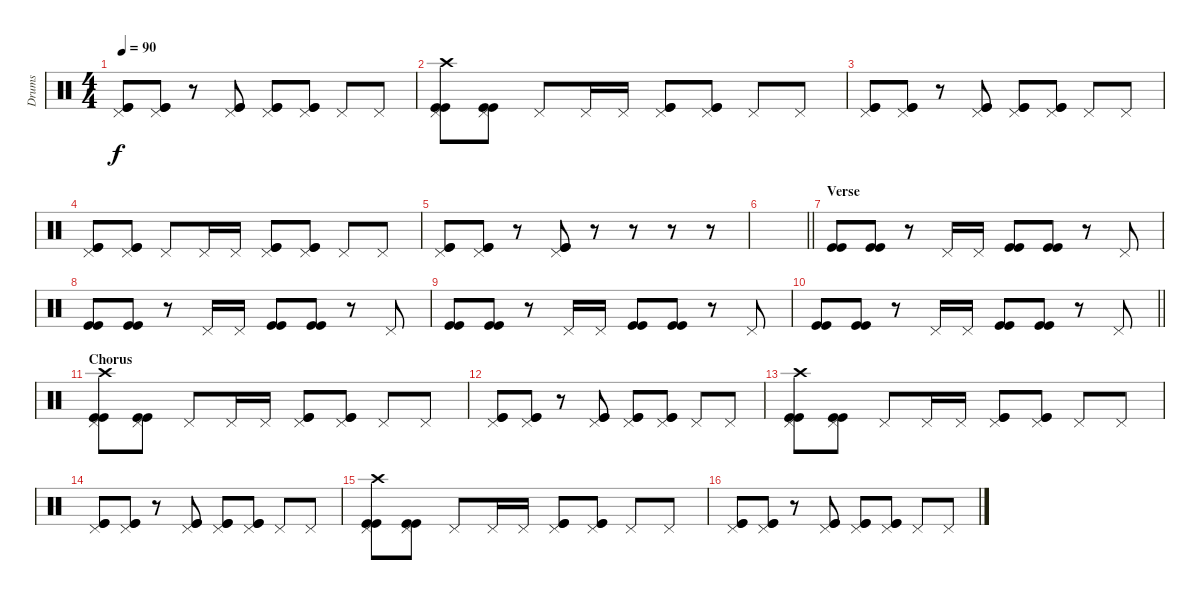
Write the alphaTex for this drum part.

\track ("Drums" "Drums") {instrument percussion}
\staff {score}
\articulation defaults
\ts (4 4)
\tempo 90
\clef neutral
\ks c
("Kick (hit)" "Kick (hit)" "Pedal Hi-Hat (hit)").8{dy f} ("Kick (hit)" "Kick (hit)" "Pedal Hi-Hat (hit)").8 r.8 ("Kick (hit)" "Kick (hit)" "Pedal Hi-Hat (hit)").8 ("Kick (hit)" "Kick (hit)" "Pedal Hi-Hat (hit)").8 ("Kick (hit)" "Kick (hit)" "Pedal Hi-Hat (hit)").8 "Pedal Hi-Hat (hit)".8 "Pedal Hi-Hat (hit)".8 |
("Kick (hit)" "Kick (hit)" "Pedal Hi-Hat (hit)" "Crash high (hit)").8 ("Kick (hit)" "Kick (hit)" "Pedal Hi-Hat (hit)").8 "Pedal Hi-Hat (hit)".8 "Pedal Hi-Hat (hit)".16 "Pedal Hi-Hat (hit)".16 ("Kick (hit)" "Kick (hit)" "Pedal Hi-Hat (hit)").8 ("Kick (hit)" "Kick (hit)" "Pedal Hi-Hat (hit)").8 "Pedal Hi-Hat (hit)".8 "Pedal Hi-Hat (hit)".8 |
("Kick (hit)" "Kick (hit)" "Pedal Hi-Hat (hit)").8 ("Kick (hit)" "Kick (hit)" "Pedal Hi-Hat (hit)").8 r.8 ("Kick (hit)" "Kick (hit)" "Pedal Hi-Hat (hit)").8 ("Kick (hit)" "Kick (hit)" "Pedal Hi-Hat (hit)").8 ("Kick (hit)" "Kick (hit)" "Pedal Hi-Hat (hit)").8 "Pedal Hi-Hat (hit)".8 "Pedal Hi-Hat (hit)".8 |
("Kick (hit)" "Kick (hit)" "Pedal Hi-Hat (hit)").8 ("Kick (hit)" "Kick (hit)" "Pedal Hi-Hat (hit)").8 "Pedal Hi-Hat (hit)".8 "Pedal Hi-Hat (hit)".16 "Pedal Hi-Hat (hit)".16 ("Kick (hit)" "Kick (hit)" "Pedal Hi-Hat (hit)").8 ("Kick (hit)" "Kick (hit)" "Pedal Hi-Hat (hit)").8 "Pedal Hi-Hat (hit)".8 "Pedal Hi-Hat (hit)".8 |
("Kick (hit)" "Kick (hit)" "Pedal Hi-Hat (hit)").8 ("Kick (hit)" "Kick (hit)" "Pedal Hi-Hat (hit)").8 r.8 ("Kick (hit)" "Kick (hit)" "Pedal Hi-Hat (hit)").8 r.8 r.8 r.8 r.8 |
\barLineRight lightlight
|
\section ("" "Verse")
("Kick (hit)" "Kick (hit)").8 ("Kick (hit)" "Kick (hit)").8 r.8 "Pedal Hi-Hat (hit)".16 "Pedal Hi-Hat (hit)".16 ("Kick (hit)" "Kick (hit)").8 ("Kick (hit)" "Kick (hit)").8 r.8 "Pedal Hi-Hat (hit)".8 |
("Kick (hit)" "Kick (hit)").8 ("Kick (hit)" "Kick (hit)").8 r.8 "Pedal Hi-Hat (hit)".16 "Pedal Hi-Hat (hit)".16 ("Kick (hit)" "Kick (hit)").8 ("Kick (hit)" "Kick (hit)").8 r.8 "Pedal Hi-Hat (hit)".8 |
("Kick (hit)" "Kick (hit)").8 ("Kick (hit)" "Kick (hit)").8 r.8 "Pedal Hi-Hat (hit)".16 "Pedal Hi-Hat (hit)".16 ("Kick (hit)" "Kick (hit)").8 ("Kick (hit)" "Kick (hit)").8 r.8 "Pedal Hi-Hat (hit)".8 |
\barLineRight lightlight
("Kick (hit)" "Kick (hit)").8 ("Kick (hit)" "Kick (hit)").8 r.8 "Pedal Hi-Hat (hit)".16 "Pedal Hi-Hat (hit)".16 ("Kick (hit)" "Kick (hit)").8 ("Kick (hit)" "Kick (hit)").8 r.8 "Pedal Hi-Hat (hit)".8 |
\section ("" "Chorus")
("Kick (hit)" "Kick (hit)" "Pedal Hi-Hat (hit)" "Crash high (hit)").8 ("Kick (hit)" "Kick (hit)" "Pedal Hi-Hat (hit)").8 "Pedal Hi-Hat (hit)".8 "Pedal Hi-Hat (hit)".16 "Pedal Hi-Hat (hit)".16 ("Kick (hit)" "Kick (hit)" "Pedal Hi-Hat (hit)").8 ("Kick (hit)" "Kick (hit)" "Pedal Hi-Hat (hit)").8 "Pedal Hi-Hat (hit)".8 "Pedal Hi-Hat (hit)".8 |
("Kick (hit)" "Kick (hit)" "Pedal Hi-Hat (hit)").8 ("Kick (hit)" "Kick (hit)" "Pedal Hi-Hat (hit)").8 r.8 ("Kick (hit)" "Kick (hit)" "Pedal Hi-Hat (hit)").8 ("Kick (hit)" "Kick (hit)" "Pedal Hi-Hat (hit)").8 ("Kick (hit)" "Kick (hit)" "Pedal Hi-Hat (hit)").8 "Pedal Hi-Hat (hit)".8 "Pedal Hi-Hat (hit)".8 |
("Kick (hit)" "Kick (hit)" "Pedal Hi-Hat (hit)" "Crash high (hit)").8 ("Kick (hit)" "Kick (hit)" "Pedal Hi-Hat (hit)").8 "Pedal Hi-Hat (hit)".8 "Pedal Hi-Hat (hit)".16 "Pedal Hi-Hat (hit)".16 ("Kick (hit)" "Kick (hit)" "Pedal Hi-Hat (hit)").8 ("Kick (hit)" "Kick (hit)" "Pedal Hi-Hat (hit)").8 "Pedal Hi-Hat (hit)".8 "Pedal Hi-Hat (hit)".8 |
("Kick (hit)" "Kick (hit)" "Pedal Hi-Hat (hit)").8 ("Kick (hit)" "Kick (hit)" "Pedal Hi-Hat (hit)").8 r.8 ("Kick (hit)" "Kick (hit)" "Pedal Hi-Hat (hit)").8 ("Kick (hit)" "Kick (hit)" "Pedal Hi-Hat (hit)").8 ("Kick (hit)" "Kick (hit)" "Pedal Hi-Hat (hit)").8 "Pedal Hi-Hat (hit)".8 "Pedal Hi-Hat (hit)".8 |
("Kick (hit)" "Kick (hit)" "Pedal Hi-Hat (hit)" "Crash high (hit)").8 ("Kick (hit)" "Kick (hit)" "Pedal Hi-Hat (hit)").8 "Pedal Hi-Hat (hit)".8 "Pedal Hi-Hat (hit)".16 "Pedal Hi-Hat (hit)".16 ("Kick (hit)" "Kick (hit)" "Pedal Hi-Hat (hit)").8 ("Kick (hit)" "Kick (hit)" "Pedal Hi-Hat (hit)").8 "Pedal Hi-Hat (hit)".8 "Pedal Hi-Hat (hit)".8 |
("Kick (hit)" "Kick (hit)" "Pedal Hi-Hat (hit)").8 ("Kick (hit)" "Kick (hit)" "Pedal Hi-Hat (hit)").8 r.8 ("Kick (hit)" "Kick (hit)" "Pedal Hi-Hat (hit)").8 ("Kick (hit)" "Kick (hit)" "Pedal Hi-Hat (hit)").8 ("Kick (hit)" "Kick (hit)" "Pedal Hi-Hat (hit)").8 "Pedal Hi-Hat (hit)".8 "Pedal Hi-Hat (hit)".8
